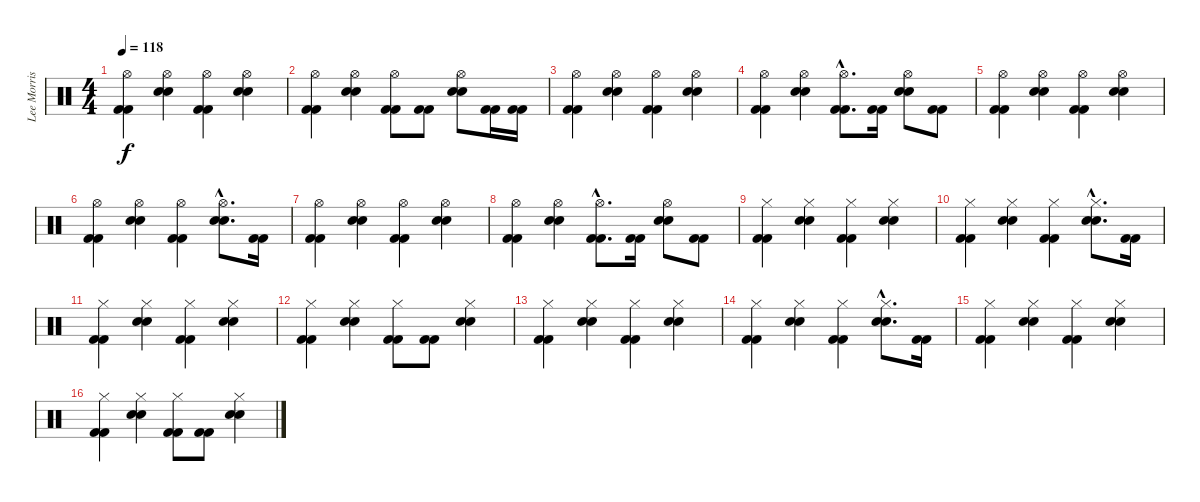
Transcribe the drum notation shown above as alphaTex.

\track ("Lee Morris" "Lee Morris") {instrument percussion}
\staff {score}
\articulation defaults
\ts (4 4)
\tempo 118
\clef neutral
\ks c
("Hi-Hat (open)" "Kick (hit) 2" "Kick (hit) 2").4{dy f} ("Hi-Hat (open)" "Snare (hit) 2" "Snare (hit) 2").4 ("Hi-Hat (open)" "Kick (hit) 2" "Kick (hit) 2").4 ("Hi-Hat (open)" "Snare (hit) 2" "Snare (hit) 2").4 |
("Hi-Hat (open)" "Kick (hit) 2" "Kick (hit) 2").4 ("Hi-Hat (open)" "Snare (hit) 2" "Snare (hit) 2").4 ("Hi-Hat (open)" "Kick (hit) 2" "Kick (hit) 2").8 ("Kick (hit) 2" "Kick (hit) 2").8 ("Hi-Hat (open)" "Snare (hit) 2" "Snare (hit) 2").8 ("Kick (hit) 2" "Kick (hit) 2").16 ("Kick (hit) 2" "Kick (hit) 2").16 |
("Hi-Hat (open)" "Kick (hit) 2" "Kick (hit) 2").4 ("Hi-Hat (open)" "Snare (hit) 2" "Snare (hit) 2").4 ("Hi-Hat (open)" "Kick (hit) 2" "Kick (hit) 2").4 ("Hi-Hat (open)" "Snare (hit) 2" "Snare (hit) 2").4 |
("Hi-Hat (open)" "Kick (hit) 2" "Kick (hit) 2").4 ("Hi-Hat (open)" "Snare (hit) 2" "Snare (hit) 2").4 ("Hi-Hat (open)"{hac} "Kick (hit) 2"{hac} "Kick (hit) 2"{hac}).8{d} ("Kick (hit) 2" "Kick (hit) 2").16 ("Hi-Hat (open)" "Snare (hit) 2" "Snare (hit) 2").8 ("Kick (hit) 2" "Kick (hit) 2").8 |
("Hi-Hat (open)" "Kick (hit) 2" "Kick (hit) 2").4 ("Hi-Hat (open)" "Snare (hit) 2" "Snare (hit) 2").4 ("Hi-Hat (open)" "Kick (hit) 2" "Kick (hit) 2").4 ("Hi-Hat (open)" "Snare (hit) 2" "Snare (hit) 2").4 |
("Hi-Hat (open)" "Kick (hit) 2" "Kick (hit) 2").4 ("Hi-Hat (open)" "Snare (hit) 2" "Snare (hit) 2").4 ("Hi-Hat (open)" "Kick (hit) 2" "Kick (hit) 2").4 ("Hi-Hat (open)"{hac} "Snare (hit) 2"{hac} "Snare (hit) 2"{hac}).8{d} ("Kick (hit) 2" "Kick (hit) 2").16 |
("Hi-Hat (open)" "Kick (hit) 2" "Kick (hit) 2").4 ("Hi-Hat (open)" "Snare (hit) 2" "Snare (hit) 2").4 ("Hi-Hat (open)" "Kick (hit) 2" "Kick (hit) 2").4 ("Hi-Hat (open)" "Snare (hit) 2" "Snare (hit) 2").4 |
("Hi-Hat (open)" "Kick (hit) 2" "Kick (hit) 2").4 ("Hi-Hat (open)" "Snare (hit) 2" "Snare (hit) 2").4 ("Hi-Hat (open)"{hac} "Kick (hit) 2"{hac} "Kick (hit) 2"{hac}).8{d} ("Kick (hit) 2" "Kick (hit) 2").16 ("Hi-Hat (open)" "Snare (hit) 2" "Snare (hit) 2").8 ("Kick (hit) 2" "Kick (hit) 2").8 |
("Hi-Hat (closed)" "Kick (hit) 2" "Kick (hit) 2").4 ("Hi-Hat (closed)" "Snare (hit) 2" "Snare (hit) 2").4 ("Hi-Hat (closed)" "Kick (hit) 2" "Kick (hit) 2").4 ("Hi-Hat (closed)" "Snare (hit) 2" "Snare (hit) 2").4 |
("Hi-Hat (closed)" "Kick (hit) 2" "Kick (hit) 2").4 ("Hi-Hat (closed)" "Snare (hit) 2" "Snare (hit) 2").4 ("Hi-Hat (closed)" "Kick (hit) 2" "Kick (hit) 2").4 ("Hi-Hat (closed)"{hac} "Snare (hit) 2"{hac} "Snare (hit) 2"{hac}).8{d} ("Kick (hit) 2" "Kick (hit) 2").16 |
("Hi-Hat (closed)" "Kick (hit) 2" "Kick (hit) 2").4 ("Hi-Hat (closed)" "Snare (hit) 2" "Snare (hit) 2").4 ("Hi-Hat (closed)" "Kick (hit) 2" "Kick (hit) 2").4 ("Hi-Hat (closed)" "Snare (hit) 2" "Snare (hit) 2").4 |
("Hi-Hat (closed)" "Kick (hit) 2" "Kick (hit) 2").4 ("Hi-Hat (closed)" "Snare (hit) 2" "Snare (hit) 2").4 ("Hi-Hat (closed)" "Kick (hit) 2" "Kick (hit) 2").8 ("Kick (hit) 2" "Kick (hit) 2").8 ("Hi-Hat (closed)" "Snare (hit) 2" "Snare (hit) 2").4 |
("Hi-Hat (closed)" "Kick (hit) 2" "Kick (hit) 2").4 ("Hi-Hat (closed)" "Snare (hit) 2" "Snare (hit) 2").4 ("Hi-Hat (closed)" "Kick (hit) 2" "Kick (hit) 2").4 ("Hi-Hat (closed)" "Snare (hit) 2" "Snare (hit) 2").4 |
("Hi-Hat (closed)" "Kick (hit) 2" "Kick (hit) 2").4 ("Hi-Hat (closed)" "Snare (hit) 2" "Snare (hit) 2").4 ("Hi-Hat (closed)" "Kick (hit) 2" "Kick (hit) 2").4 ("Hi-Hat (closed)"{hac} "Snare (hit) 2"{hac} "Snare (hit) 2"{hac}).8{d} ("Kick (hit) 2" "Kick (hit) 2").16 |
("Hi-Hat (closed)" "Kick (hit) 2" "Kick (hit) 2").4 ("Hi-Hat (closed)" "Snare (hit) 2" "Snare (hit) 2").4 ("Hi-Hat (closed)" "Kick (hit) 2" "Kick (hit) 2").4 ("Hi-Hat (closed)" "Snare (hit) 2" "Snare (hit) 2").4 |
("Hi-Hat (closed)" "Kick (hit) 2" "Kick (hit) 2").4 ("Hi-Hat (closed)" "Snare (hit) 2" "Snare (hit) 2").4 ("Hi-Hat (closed)" "Kick (hit) 2" "Kick (hit) 2").8 ("Kick (hit) 2" "Kick (hit) 2").8 ("Hi-Hat (closed)" "Snare (hit) 2" "Snare (hit) 2").4
